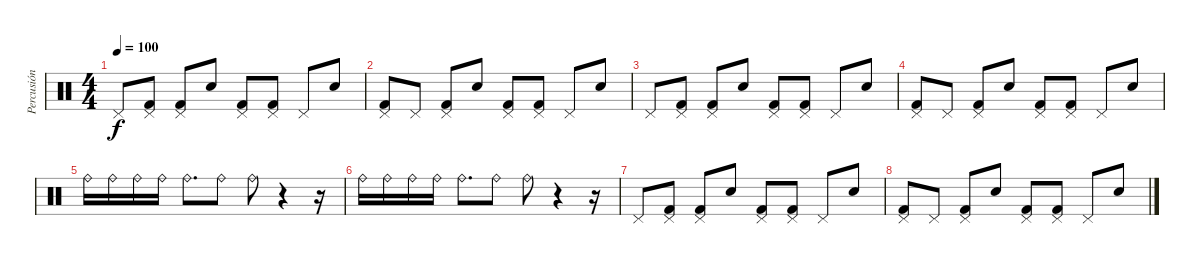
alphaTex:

\track ("Percusión" "Percusión") {instrument percussion}
\staff {score}
\articulation defaults
\ts (4 4)
\tempo 100
\clef neutral
\ks c "Pedal Hi-Hat (hit)".8{dy f}
("Pedal Hi-Hat (hit)" "Kick (hit) 2").8 ("Pedal Hi-Hat (hit)" "Kick (hit) 2").8 "Electric Snare (hit)".8 ("Kick (hit) 2" "Pedal Hi-Hat (hit)").8 ("Pedal Hi-Hat (hit)" "Kick (hit) 2").8 "Pedal Hi-Hat (hit)".8 "Electric Snare (hit)".8 |
("Pedal Hi-Hat (hit)" "Kick (hit) 2").8 "Pedal Hi-Hat (hit)".8 ("Pedal Hi-Hat (hit)" "Kick (hit) 2").8 "Electric Snare (hit)".8 ("Kick (hit) 2" "Pedal Hi-Hat (hit)").8 ("Pedal Hi-Hat (hit)" "Kick (hit) 2").8 "Pedal Hi-Hat (hit)".8 "Electric Snare (hit)".8 |
"Pedal Hi-Hat (hit)".8 ("Pedal Hi-Hat (hit)" "Kick (hit) 2").8 ("Pedal Hi-Hat (hit)" "Kick (hit) 2").8 "Electric Snare (hit)".8 ("Kick (hit) 2" "Pedal Hi-Hat (hit)").8 ("Pedal Hi-Hat (hit)" "Kick (hit) 2").8 "Pedal Hi-Hat (hit)".8 "Electric Snare (hit)".8 |
("Pedal Hi-Hat (hit)" "Kick (hit) 2").8 "Pedal Hi-Hat (hit)".8 ("Pedal Hi-Hat (hit)" "Kick (hit) 2").8 "Electric Snare (hit)".8 ("Kick (hit) 2" "Pedal Hi-Hat (hit)").8 ("Pedal Hi-Hat (hit)" "Kick (hit) 2").8 "Pedal Hi-Hat (hit)".8 "Electric Snare (hit)".8 |
"Ride (bell)".16 "Ride (bell)".16 "Ride (bell)".16 "Ride (bell)".16 "Ride (bell)".8{d} "Ride (bell)".8 "Ride (bell)".8 r.4 r.16 |
"Ride (bell)".16{volume 0} "Ride (bell)".16 "Ride (bell)".16 "Ride (bell)".16 "Ride (bell)".8{d} "Ride (bell)".8 "Ride (bell)".8 r.4 r.16 |
"Pedal Hi-Hat (hit)".8 ("Pedal Hi-Hat (hit)" "Kick (hit) 2").8 ("Pedal Hi-Hat (hit)" "Kick (hit) 2").8 "Electric Snare (hit)".8 ("Kick (hit) 2" "Pedal Hi-Hat (hit)").8 ("Pedal Hi-Hat (hit)" "Kick (hit) 2").8 "Pedal Hi-Hat (hit)".8 "Electric Snare (hit)".8 |
("Pedal Hi-Hat (hit)" "Kick (hit) 2").8 "Pedal Hi-Hat (hit)".8 ("Pedal Hi-Hat (hit)" "Kick (hit) 2").8 "Electric Snare (hit)".8 ("Kick (hit) 2" "Pedal Hi-Hat (hit)").8 ("Pedal Hi-Hat (hit)" "Kick (hit) 2").8 "Pedal Hi-Hat (hit)".8 "Electric Snare (hit)".8
